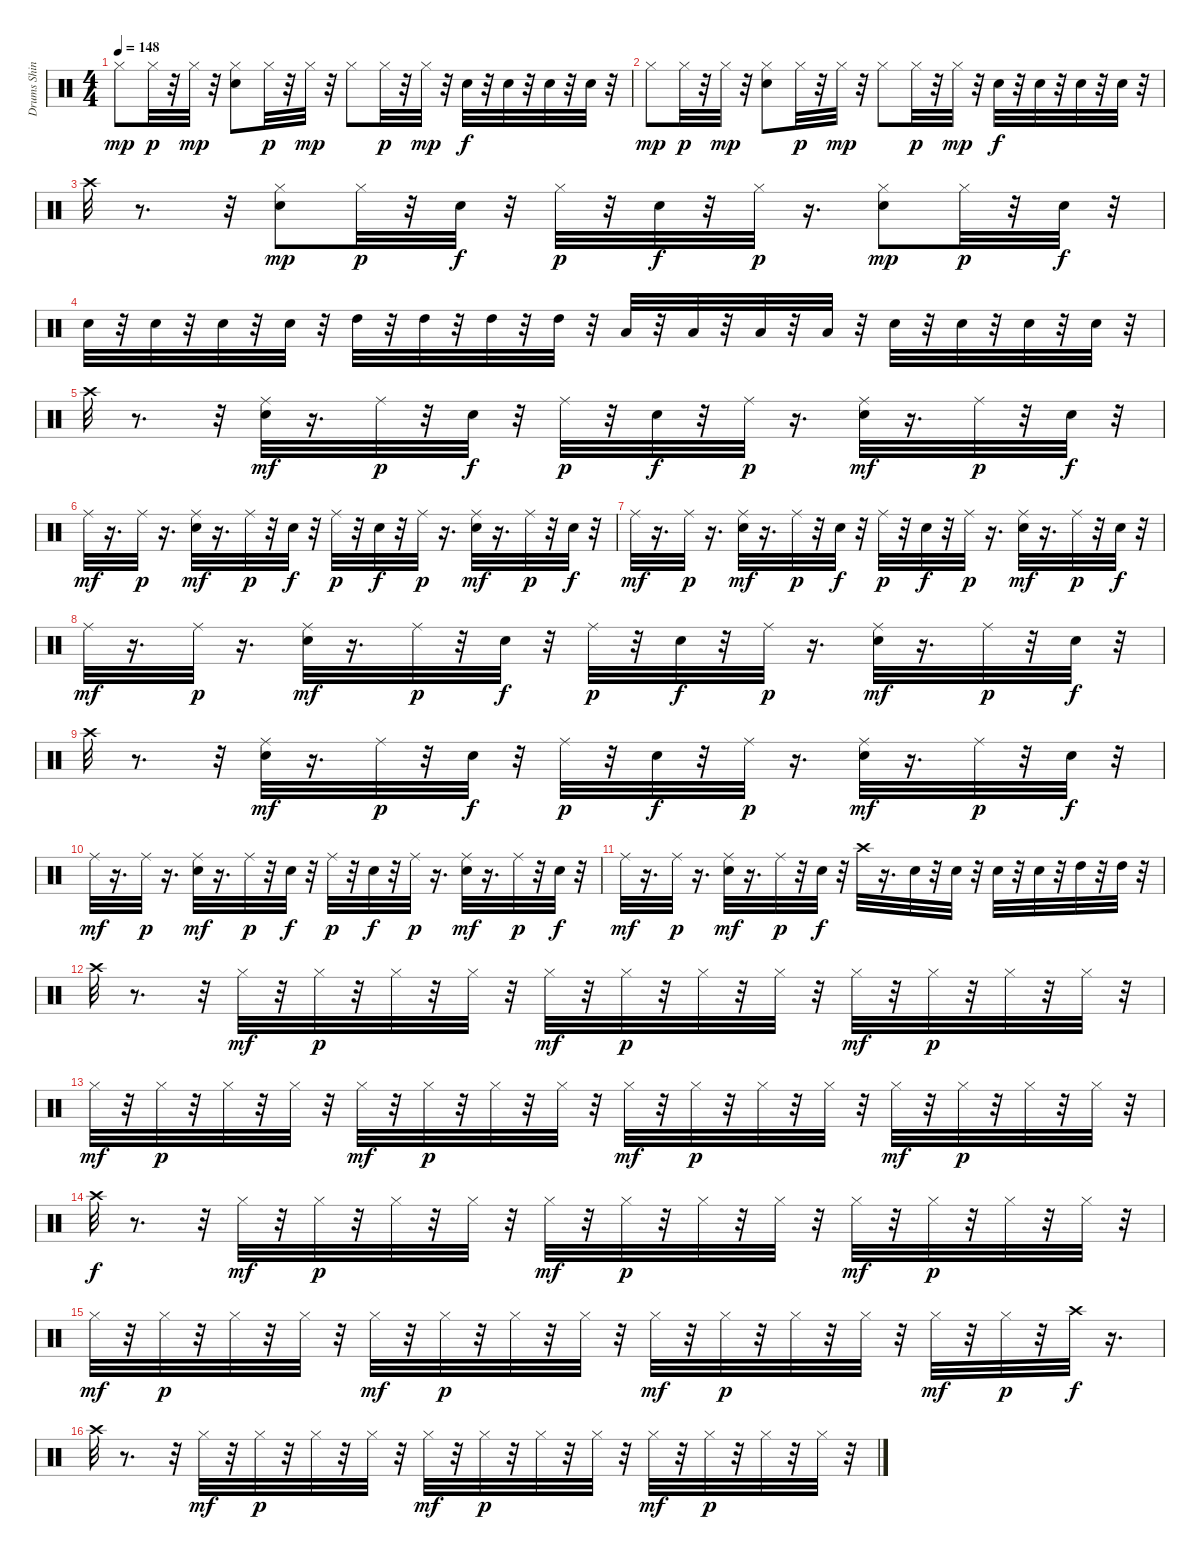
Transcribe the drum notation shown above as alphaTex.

\track ("Drums Shinya         " "Drums Shin") {instrument percussion}
\staff {score}
\articulation defaults
\ts (4 4)
\tempo 148
\clef neutral
\ks c "Hi-Hat (closed)".8{dy mp} "Hi-Hat (closed)".32{dy p}
r.32 "Hi-Hat (closed)".32{dy mp} r.32 ("Electric Snare (hit)" "Hi-Hat (closed)").8 "Hi-Hat (closed)".32{dy p} r.32 "Hi-Hat (closed)".32{dy mp} r.32 "Hi-Hat (closed)".8 "Hi-Hat (closed)".32{dy p} r.32 "Hi-Hat (closed)".32{dy mp} r.32 "Electric Snare (hit)".32{dy f} r.32 "Electric Snare (hit)".32 r.32 "Electric Snare (hit)".32 r.32 "Electric Snare (hit)".32 r.32 |
"Hi-Hat (closed)".8{dy mp} "Hi-Hat (closed)".32{dy p} r.32 "Hi-Hat (closed)".32{dy mp} r.32 ("Electric Snare (hit)" "Hi-Hat (closed)").8 "Hi-Hat (closed)".32{dy p} r.32 "Hi-Hat (closed)".32{dy mp} r.32 "Hi-Hat (closed)".8 "Hi-Hat (closed)".32{dy p} r.32 "Hi-Hat (closed)".32{dy mp} r.32 "Electric Snare (hit)".32{dy f} r.32 "Electric Snare (hit)".32 r.32 "Electric Snare (hit)".32 r.32 "Electric Snare (hit)".32 r.32 |
"Crash high (hit)".32 r.8{d} r.32 ("Electric Snare (hit)" "Hi-Hat (closed)").8{dy mp} "Hi-Hat (closed)".32{dy p} r.32 "Electric Snare (hit)".32{dy f} r.32 "Hi-Hat (closed)".32{dy p} r.32 "Electric Snare (hit)".32{dy f} r.32 "Hi-Hat (closed)".32{dy p} r.16{d} ("Electric Snare (hit)" "Hi-Hat (closed)").8{dy mp} "Hi-Hat (closed)".32{dy p} r.32 "Electric Snare (hit)".32{dy f} r.32 |
"Electric Snare (hit)".32 r.32 "Electric Snare (hit)".32 r.32 "Electric Snare (hit)".32 r.32 "Electric Snare (hit)".32 r.32 "High Tom (hit)".32 r.32 "High Tom (hit)".32 r.32 "High Tom (hit)".32 r.32 "High Tom (hit)".32 r.32 "Low Tom (hit)".32 r.32 "Low Tom (hit)".32 r.32 "Low Tom (hit)".32 r.32 "Low Tom (hit)".32 r.32 "Electric Snare (hit)".32 r.32 "Electric Snare (hit)".32 r.32 "Electric Snare (hit)".32 r.32 "Electric Snare (hit)".32 r.32 |
"Crash high (hit)".32 r.8{d} r.32 ("Electric Snare (hit)" "Ride (middle)").32{dy mf} r.16{d} "Ride (middle)".32{dy p} r.32 "Electric Snare (hit)".32{dy f} r.32 "Ride (middle)".32{dy p} r.32 "Electric Snare (hit)".32{dy f} r.32 "Ride (middle)".32{dy p} r.16{d} ("Electric Snare (hit)" "Ride (middle)").32{dy mf} r.16{d} "Ride (middle)".32{dy p} r.32 "Electric Snare (hit)".32{dy f} r.32 |
"Ride (middle)".32{dy mf} r.16{d} "Ride (middle)".32{dy p} r.16{d} ("Electric Snare (hit)" "Ride (middle)").32{dy mf} r.16{d} "Ride (middle)".32{dy p} r.32 "Electric Snare (hit)".32{dy f} r.32 "Ride (middle)".32{dy p} r.32 "Electric Snare (hit)".32{dy f} r.32 "Ride (middle)".32{dy p} r.16{d} ("Electric Snare (hit)" "Ride (middle)").32{dy mf} r.16{d} "Ride (middle)".32{dy p} r.32 "Electric Snare (hit)".32{dy f} r.32 |
"Ride (middle)".32{dy mf} r.16{d} "Ride (middle)".32{dy p} r.16{d} ("Electric Snare (hit)" "Ride (middle)").32{dy mf} r.16{d} "Ride (middle)".32{dy p} r.32 "Electric Snare (hit)".32{dy f} r.32 "Ride (middle)".32{dy p} r.32 "Electric Snare (hit)".32{dy f} r.32 "Ride (middle)".32{dy p} r.16{d} ("Electric Snare (hit)" "Ride (middle)").32{dy mf} r.16{d} "Ride (middle)".32{dy p} r.32 "Electric Snare (hit)".32{dy f} r.32 |
"Ride (middle)".32{dy mf} r.16{d} "Ride (middle)".32{dy p} r.16{d} ("Electric Snare (hit)" "Ride (middle)").32{dy mf} r.16{d} "Ride (middle)".32{dy p} r.32 "Electric Snare (hit)".32{dy f} r.32 "Ride (middle)".32{dy p} r.32 "Electric Snare (hit)".32{dy f} r.32 "Ride (middle)".32{dy p} r.16{d} ("Electric Snare (hit)" "Ride (middle)").32{dy mf} r.16{d} "Ride (middle)".32{dy p} r.32 "Electric Snare (hit)".32{dy f} r.32 |
"Crash high (hit)".32 r.8{d} r.32 ("Electric Snare (hit)" "Ride (middle)").32{dy mf} r.16{d} "Ride (middle)".32{dy p} r.32 "Electric Snare (hit)".32{dy f} r.32 "Ride (middle)".32{dy p} r.32 "Electric Snare (hit)".32{dy f} r.32 "Ride (middle)".32{dy p} r.16{d} ("Electric Snare (hit)" "Ride (middle)").32{dy mf} r.16{d} "Ride (middle)".32{dy p} r.32 "Electric Snare (hit)".32{dy f} r.32 |
"Ride (middle)".32{dy mf} r.16{d} "Ride (middle)".32{dy p} r.16{d} ("Electric Snare (hit)" "Ride (middle)").32{dy mf} r.16{d} "Ride (middle)".32{dy p} r.32 "Electric Snare (hit)".32{dy f} r.32 "Ride (middle)".32{dy p} r.32 "Electric Snare (hit)".32{dy f} r.32 "Ride (middle)".32{dy p} r.16{d} ("Electric Snare (hit)" "Ride (middle)").32{dy mf} r.16{d} "Ride (middle)".32{dy p} r.32 "Electric Snare (hit)".32{dy f} r.32 |
"Ride (middle)".32{dy mf} r.16{d} "Ride (middle)".32{dy p} r.16{d} ("Electric Snare (hit)" "Ride (middle)").32{dy mf} r.16{d} "Ride (middle)".32{dy p} r.32 "Electric Snare (hit)".32{dy f} r.32 "Crash high (hit)".32 r.16{d} "Electric Snare (hit)".32 r.32 "Electric Snare (hit)".32 r.32 "Electric Snare (hit)".32 r.32 "Electric Snare (hit)".32 r.32 "High Tom (hit)".32 r.32 "High Tom (hit)".32 r.32 |
"Crash high (hit)".32 r.8{d} r.32 "Hi-Hat (closed)".32{dy mf} r.32 "Hi-Hat (closed)".32{dy p} r.32 "Hi-Hat (closed)".32 r.32 "Hi-Hat (closed)".32 r.32 "Hi-Hat (closed)".32{dy mf} r.32 "Hi-Hat (closed)".32{dy p} r.32 "Hi-Hat (closed)".32 r.32 "Hi-Hat (closed)".32 r.32 "Hi-Hat (closed)".32{dy mf} r.32 "Hi-Hat (closed)".32{dy p} r.32 "Hi-Hat (closed)".32 r.32 "Hi-Hat (closed)".32 r.32 |
"Hi-Hat (closed)".32{dy mf} r.32 "Hi-Hat (closed)".32{dy p} r.32 "Hi-Hat (closed)".32 r.32 "Hi-Hat (closed)".32 r.32 "Hi-Hat (closed)".32{dy mf} r.32 "Hi-Hat (closed)".32{dy p} r.32 "Hi-Hat (closed)".32 r.32 "Hi-Hat (closed)".32 r.32 "Hi-Hat (closed)".32{dy mf} r.32 "Hi-Hat (closed)".32{dy p} r.32 "Hi-Hat (closed)".32 r.32 "Hi-Hat (closed)".32 r.32 "Hi-Hat (closed)".32{dy mf} r.32 "Hi-Hat (closed)".32{dy p} r.32 "Hi-Hat (closed)".32 r.32 "Hi-Hat (closed)".32 r.32 |
"Crash high (hit)".32{dy f} r.8{d} r.32 "Hi-Hat (closed)".32{dy mf} r.32 "Hi-Hat (closed)".32{dy p} r.32 "Hi-Hat (closed)".32 r.32 "Hi-Hat (closed)".32 r.32 "Hi-Hat (closed)".32{dy mf} r.32 "Hi-Hat (closed)".32{dy p} r.32 "Hi-Hat (closed)".32 r.32 "Hi-Hat (closed)".32 r.32 "Hi-Hat (closed)".32{dy mf} r.32 "Hi-Hat (closed)".32{dy p} r.32 "Hi-Hat (closed)".32 r.32 "Hi-Hat (closed)".32 r.32 |
"Hi-Hat (closed)".32{dy mf} r.32 "Hi-Hat (closed)".32{dy p} r.32 "Hi-Hat (closed)".32 r.32 "Hi-Hat (closed)".32 r.32 "Hi-Hat (closed)".32{dy mf} r.32 "Hi-Hat (closed)".32{dy p} r.32 "Hi-Hat (closed)".32 r.32 "Hi-Hat (closed)".32 r.32 "Hi-Hat (closed)".32{dy mf} r.32 "Hi-Hat (closed)".32{dy p} r.32 "Hi-Hat (closed)".32 r.32 "Hi-Hat (closed)".32 r.32 "Hi-Hat (closed)".32{dy mf} r.32 "Hi-Hat (closed)".32{dy p} r.32 "Crash high (hit)".32{dy f} r.16{d} |
"Crash high (hit)".32 r.8{d} r.32 "Hi-Hat (closed)".32{dy mf} r.32 "Hi-Hat (closed)".32{dy p} r.32 "Hi-Hat (closed)".32 r.32 "Hi-Hat (closed)".32 r.32 "Hi-Hat (closed)".32{dy mf} r.32 "Hi-Hat (closed)".32{dy p} r.32 "Hi-Hat (closed)".32 r.32 "Hi-Hat (closed)".32 r.32 "Hi-Hat (closed)".32{dy mf} r.32 "Hi-Hat (closed)".32{dy p} r.32 "Hi-Hat (closed)".32 r.32 "Hi-Hat (closed)".32 r.32
